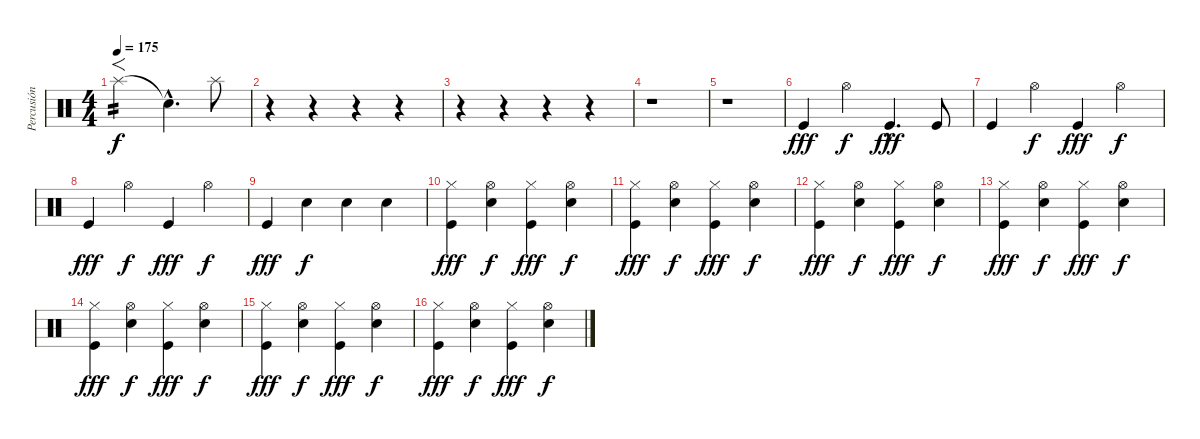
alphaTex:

\track ("Percusión" "Percusión") {instrument percussion}
\staff {score}
\articulation defaults
\ts (4 4)
\tempo 175
\clef neutral
\ks c "Splash (hit)".2{f tp 2 dy f} "Snare (hit)"{hac t}.4{d} "Splash (hit)".8
|
r.4 r.4 r.4 r.4 |
r.4 r.4 r.4 r.4 |
r.1 |
r.1 |
"Kick (hit)".4{dy fff} "Hi-Hat (open)".4{dy f} "Kick (hit)"{hac}.4{d dy fff} "Kick (hit)".8 |
"Kick (hit)".4 "Hi-Hat (open)".4{dy f} "Kick (hit)".4{dy fff} "Hi-Hat (open)".4{dy f} |
"Kick (hit)".4{dy fff} "Hi-Hat (open)".4{dy f} "Kick (hit)".4{dy fff} "Hi-Hat (open)".4{dy f} |
"Kick (hit)".4{dy fff} "Electric Snare (hit)".4{dy f} "Electric Snare (hit)".4 "Electric Snare (hit)".4 |
("Hi-Hat (closed)" "Kick (hit)").4{dy fff} ("Hi-Hat (open)" "Electric Snare (hit)").4{dy f} ("Hi-Hat (closed)" "Kick (hit)").4{dy fff} ("Hi-Hat (open)" "Electric Snare (hit)").4{dy f} |
("Hi-Hat (closed)" "Kick (hit)").4{dy fff} ("Hi-Hat (open)" "Electric Snare (hit)").4{dy f} ("Hi-Hat (closed)" "Kick (hit)").4{dy fff} ("Hi-Hat (open)" "Electric Snare (hit)").4{dy f} |
("Hi-Hat (closed)" "Kick (hit)").4{dy fff} ("Hi-Hat (open)" "Electric Snare (hit)").4{dy f} ("Hi-Hat (closed)" "Kick (hit)").4{dy fff} ("Hi-Hat (open)" "Electric Snare (hit)").4{dy f} |
("Hi-Hat (closed)" "Kick (hit)").4{dy fff} ("Hi-Hat (open)" "Electric Snare (hit)").4{dy f} ("Hi-Hat (closed)" "Kick (hit)").4{dy fff} ("Hi-Hat (open)" "Electric Snare (hit)").4{dy f} |
("Hi-Hat (closed)" "Kick (hit)").4{dy fff} ("Hi-Hat (open)" "Electric Snare (hit)").4{dy f} ("Hi-Hat (closed)" "Kick (hit)").4{dy fff} ("Hi-Hat (open)" "Electric Snare (hit)").4{dy f} |
("Hi-Hat (closed)" "Kick (hit)").4{dy fff} ("Hi-Hat (open)" "Electric Snare (hit)").4{dy f} ("Hi-Hat (closed)" "Kick (hit)").4{dy fff} ("Hi-Hat (open)" "Electric Snare (hit)").4{dy f} |
("Hi-Hat (closed)" "Kick (hit)").4{dy fff} ("Hi-Hat (open)" "Electric Snare (hit)").4{dy f} ("Hi-Hat (closed)" "Kick (hit)").4{dy fff} ("Hi-Hat (open)" "Electric Snare (hit)").4{dy f}
